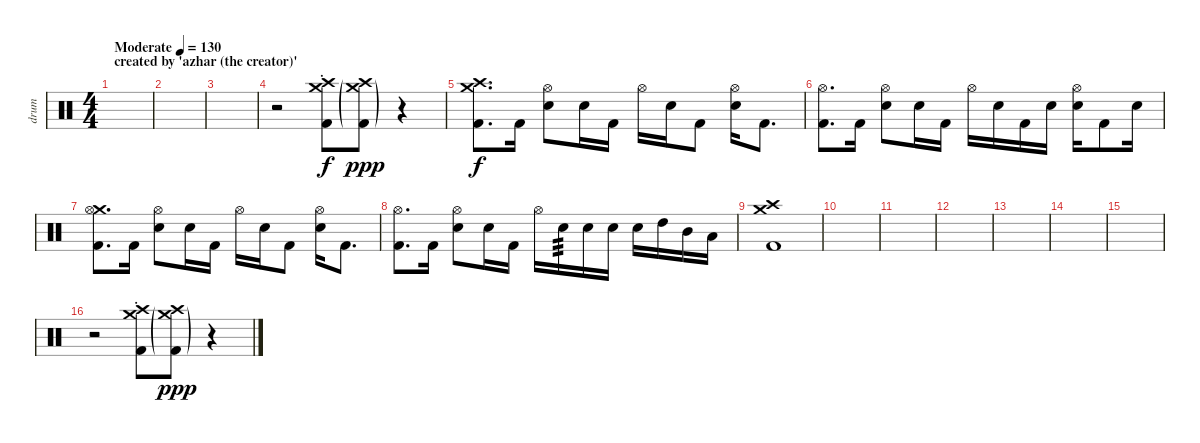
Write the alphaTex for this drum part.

\track ("drum" "drum") {instrument percussion}
\staff {score}
\articulation defaults
\ts (4 4)
\section ("" "created by 'azhar (the creator)'")
\tempo (130 "Moderate")
\clef neutral
\ks c
|
|
|
r.2 ("Crash medium (hit)"{st} "Crash high (hit)"{st} "Kick (hit) 2"{st}).8 ("Crash medium (hit)"{g} "Crash high (hit)"{g} "Kick (hit) 2"{g}).8{dy ppp} r.4 |
("Crash medium (hit)" "Crash high (hit)" "Kick (hit) 2").8{d dy f} "Kick (hit) 2".16 ("Hi-Hat (open)" "Electric Snare (hit)").8 "Electric Snare (hit)".16 "Kick (hit) 2".16 "Hi-Hat (open)".16 "Electric Snare (hit)".16 "Kick (hit) 2".8 ("Hi-Hat (open)" "Electric Snare (hit)").16 "Kick (hit) 2".8{d} |
("Hi-Hat (open)" "Kick (hit) 2").8{d} "Kick (hit) 2".16 ("Hi-Hat (open)" "Electric Snare (hit)").8 "Electric Snare (hit)".16 "Kick (hit) 2".16 "Hi-Hat (open)".16 "Electric Snare (hit)".16 "Kick (hit) 2".16 "Electric Snare (hit)".16 ("Hi-Hat (open)" "Electric Snare (hit)").16 "Kick (hit) 2".8 "Electric Snare (hit)".16 |
("Crash medium (hit)" "Hi-Hat (open)" "Kick (hit) 2").8{d} "Kick (hit) 2".16 ("Hi-Hat (open)" "Electric Snare (hit)").8 "Electric Snare (hit)".16 "Kick (hit) 2".16 "Hi-Hat (open)".16 "Electric Snare (hit)".16 "Kick (hit) 2".8 ("Hi-Hat (open)" "Electric Snare (hit)").16 "Kick (hit) 2".8{d} |
("Hi-Hat (open)" "Kick (hit) 2").8{d} "Kick (hit) 2".16 ("Hi-Hat (open)" "Electric Snare (hit)").8 "Electric Snare (hit)".16 "Kick (hit) 2".16 "Hi-Hat (open)".16 "Electric Snare (hit)".16{tp 3} "Electric Snare (hit)".16 "Electric Snare (hit)".16 "Electric Snare (hit)".16 "High Tom (hit)".16 "Mid Tom (hit)".16 "Low Tom (hit)".16 |
("Crash medium (hit)" "Crash high (hit)" "Kick (hit) 2").1 |
|
|
|
|
|
|
r.2 ("Crash medium (hit)"{st} "Crash high (hit)"{st} "Kick (hit) 2"{st}).8 ("Crash medium (hit)"{g} "Crash high (hit)"{g} "Kick (hit) 2"{g}).8{dy ppp} r.4
